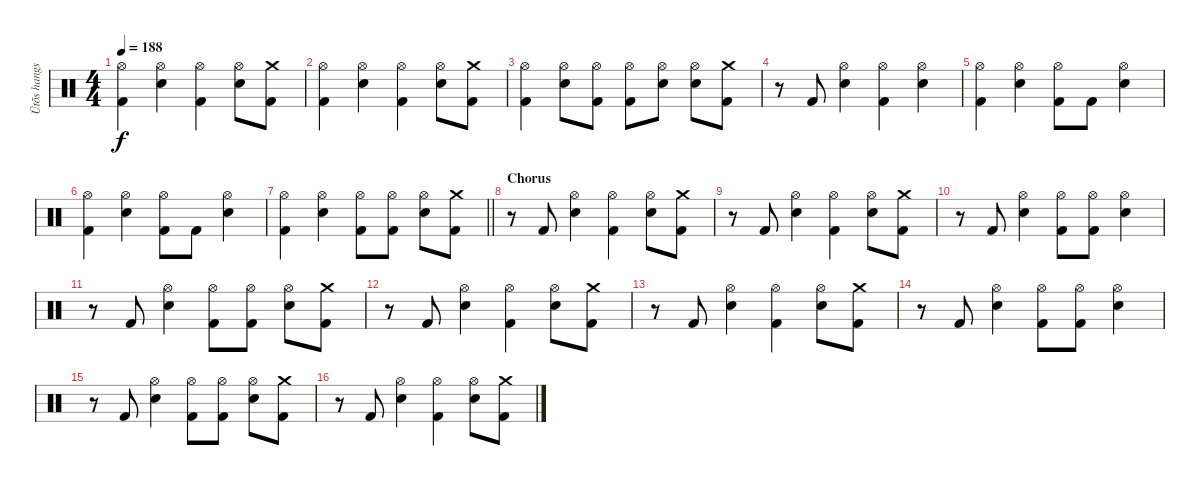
\track ("Ütõs hangszer" "Ütõs hangs") {instrument percussion}
\staff {score}
\articulation defaults
\ts (4 4)
\tempo 188
\clef neutral
\ks c
("Hi-Hat (open)" "Kick (hit) 2").4{dy f} ("Hi-Hat (open)" "Electric Snare (hit)").4 ("Hi-Hat (open)" "Kick (hit) 2").4 ("Hi-Hat (open)" "Electric Snare (hit)").8 ("Crash medium (hit)" "Kick (hit) 2").8 |
("Hi-Hat (open)" "Kick (hit) 2").4 ("Hi-Hat (open)" "Electric Snare (hit)").4 ("Hi-Hat (open)" "Kick (hit) 2").4 ("Hi-Hat (open)" "Electric Snare (hit)").8 ("Crash medium (hit)" "Kick (hit) 2").8 |
("Hi-Hat (open)" "Kick (hit) 2").4 ("Hi-Hat (open)" "Electric Snare (hit)").8 ("Hi-Hat (open)" "Kick (hit) 2").8 ("Hi-Hat (open)" "Kick (hit) 2").8 ("Hi-Hat (open)" "Electric Snare (hit)").8 ("Hi-Hat (open)" "Electric Snare (hit)").8 ("Crash medium (hit)" "Kick (hit) 2").8 |
r.8 "Kick (hit) 2".8 ("Hi-Hat (open)" "Electric Snare (hit)").4 ("Hi-Hat (open)" "Kick (hit) 2").4 ("Hi-Hat (open)" "Electric Snare (hit)").4 |
("Hi-Hat (open)" "Kick (hit) 2").4 ("Hi-Hat (open)" "Electric Snare (hit)").4 ("Hi-Hat (open)" "Kick (hit) 2").8 "Kick (hit) 2".8 ("Hi-Hat (open)" "Electric Snare (hit)").4 |
("Hi-Hat (open)" "Kick (hit) 2").4 ("Hi-Hat (open)" "Electric Snare (hit)").4 ("Hi-Hat (open)" "Kick (hit) 2").8 "Kick (hit) 2".8 ("Hi-Hat (open)" "Electric Snare (hit)").4 |
\barLineRight lightlight
("Hi-Hat (open)" "Kick (hit) 2").4 ("Hi-Hat (open)" "Electric Snare (hit)").4 ("Hi-Hat (open)" "Kick (hit) 2").8 ("Hi-Hat (open)" "Kick (hit) 2").8 ("Hi-Hat (open)" "Electric Snare (hit)").8 ("Crash medium (hit)" "Kick (hit) 2").8 |
\section ("" "Chorus")
r.8 "Kick (hit) 2".8 ("Hi-Hat (open)" "Electric Snare (hit)").4 ("Hi-Hat (open)" "Kick (hit) 2").4 ("Hi-Hat (open)" "Electric Snare (hit)").8 ("Crash medium (hit)" "Kick (hit) 2").8 |
r.8 "Kick (hit) 2".8 ("Hi-Hat (open)" "Electric Snare (hit)").4 ("Hi-Hat (open)" "Kick (hit) 2").4 ("Hi-Hat (open)" "Electric Snare (hit)").8 ("Crash medium (hit)" "Kick (hit) 2").8 |
r.8 "Kick (hit) 2".8 ("Hi-Hat (open)" "Electric Snare (hit)").4 ("Hi-Hat (open)" "Kick (hit) 2").8 ("Hi-Hat (open)" "Kick (hit) 2").8 ("Hi-Hat (open)" "Electric Snare (hit)").4 |
r.8 "Kick (hit) 2".8 ("Hi-Hat (open)" "Electric Snare (hit)").4 ("Hi-Hat (open)" "Kick (hit) 2").8 ("Hi-Hat (open)" "Kick (hit) 2").8 ("Hi-Hat (open)" "Electric Snare (hit)").8 ("Crash medium (hit)" "Kick (hit) 2").8 |
r.8 "Kick (hit) 2".8 ("Hi-Hat (open)" "Electric Snare (hit)").4 ("Hi-Hat (open)" "Kick (hit) 2").4 ("Hi-Hat (open)" "Electric Snare (hit)").8 ("Crash medium (hit)" "Kick (hit) 2").8 |
r.8 "Kick (hit) 2".8 ("Hi-Hat (open)" "Electric Snare (hit)").4 ("Hi-Hat (open)" "Kick (hit) 2").4 ("Hi-Hat (open)" "Electric Snare (hit)").8 ("Crash medium (hit)" "Kick (hit) 2").8 |
r.8 "Kick (hit) 2".8 ("Hi-Hat (open)" "Electric Snare (hit)").4 ("Hi-Hat (open)" "Kick (hit) 2").8 ("Hi-Hat (open)" "Kick (hit) 2").8 ("Hi-Hat (open)" "Electric Snare (hit)").4 |
r.8 "Kick (hit) 2".8 ("Hi-Hat (open)" "Electric Snare (hit)").4 ("Hi-Hat (open)" "Kick (hit) 2").8 ("Hi-Hat (open)" "Kick (hit) 2").8 ("Hi-Hat (open)" "Electric Snare (hit)").8 ("Crash medium (hit)" "Kick (hit) 2").8 |
r.8 "Kick (hit) 2".8 ("Hi-Hat (open)" "Electric Snare (hit)").4 ("Hi-Hat (open)" "Kick (hit) 2").4 ("Hi-Hat (open)" "Electric Snare (hit)").8 ("Crash medium (hit)" "Kick (hit) 2").8
